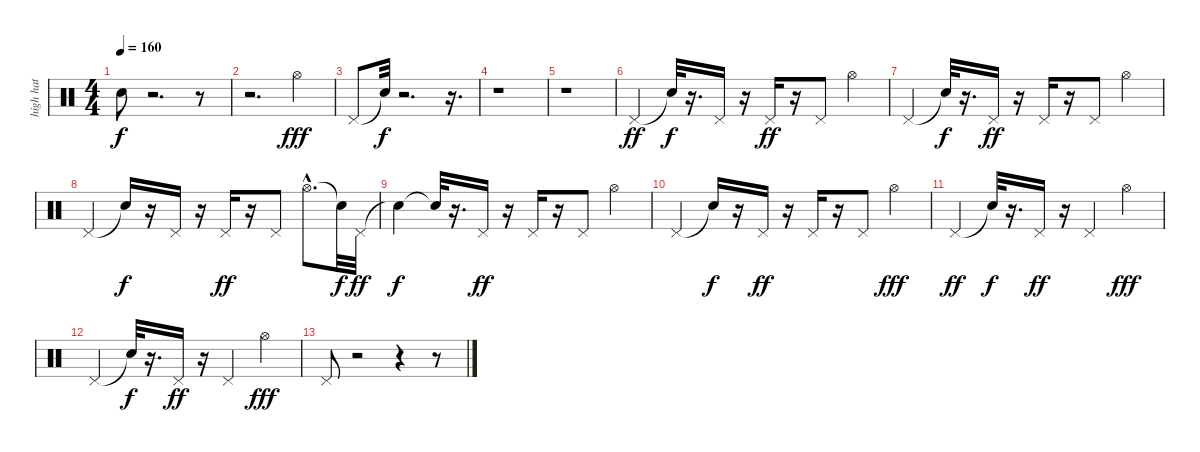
\track ("high hat" "high hat") {instrument percussion}
\staff {score}
\articulation defaults
\ts (4 4)
\tempo 160
\clef neutral
\ks c "Snare (hit)"{t}.8{dy f}
r.2{d} r.8 |
r.2{d} "Hi-Hat (open)".4{dy fff} |
"Pedal Hi-Hat (hit)".8 "Snare (hit)"{t}.32{dy f} r.2{d} r.16{d} |
r.1 |
r.1 |
"Pedal Hi-Hat (hit)".4{dy ff} "Snare (hit)"{t}.32{dy f} r.16{d} "Pedal Hi-Hat (hit)".16 r.16 "Pedal Hi-Hat (hit)".16{dy ff} r.16 "Pedal Hi-Hat (hit)".8 "Hi-Hat (open)".4 |
"Pedal Hi-Hat (hit)".4 "Snare (hit)"{t}.32{dy f} r.16{d} "Pedal Hi-Hat (hit)".16{dy ff} r.16 "Pedal Hi-Hat (hit)".16 r.16 "Pedal Hi-Hat (hit)".8 "Hi-Hat (open)".4 |
"Pedal Hi-Hat (hit)".4 "Snare (hit)"{t}.16{dy f} r.16 "Pedal Hi-Hat (hit)".16 r.16 "Pedal Hi-Hat (hit)".16{dy ff} r.16 "Pedal Hi-Hat (hit)".8 "Hi-Hat (open)"{hac}.8{d} "Snare (hit)"{t}.32{dy f} "Pedal Hi-Hat (hit)".32{dy ff} |
"Snare (hit)"{t}.4{dy f} "Snare (hit)"{t}.32 r.16{d} "Pedal Hi-Hat (hit)".16{dy ff} r.16 "Pedal Hi-Hat (hit)".16 r.16 "Pedal Hi-Hat (hit)".8 "Hi-Hat (open)".4 |
"Pedal Hi-Hat (hit)".4 "Snare (hit)"{t}.16{dy f} r.16 "Pedal Hi-Hat (hit)".16{dy ff} r.16 "Pedal Hi-Hat (hit)".16 r.16 "Pedal Hi-Hat (hit)".8 "Hi-Hat (open)".4{dy fff} |
"Pedal Hi-Hat (hit)".4{dy ff} "Snare (hit)"{t}.32{dy f} r.16{d} "Pedal Hi-Hat (hit)".16{dy ff} r.16 "Pedal Hi-Hat (hit)".4 "Hi-Hat (open)".4{dy fff} |
"Pedal Hi-Hat (hit)".4 "Snare (hit)"{t}.32{dy f} r.16{d} "Pedal Hi-Hat (hit)".16{dy ff} r.16 "Pedal Hi-Hat (hit)".4 "Hi-Hat (open)".4{dy fff} |
"Pedal Hi-Hat (hit)".8 r.2 r.4 r.8
